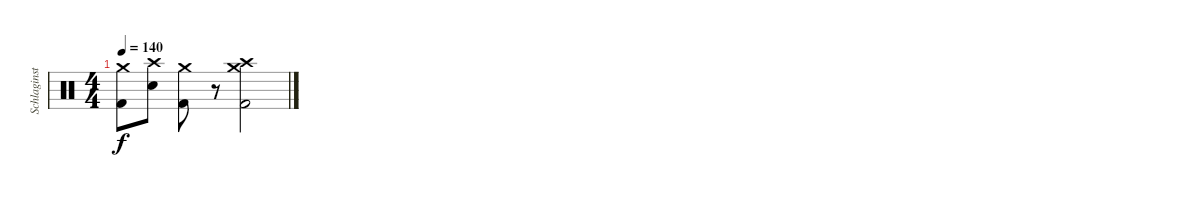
\track ("Schlaginstrumente - Auswahl" "Schlaginst") {instrument percussion}
\staff {score}
\articulation defaults
\ts (4 4)
\tempo 140
\clef neutral
\ks c
("Crash medium (hit)" "Kick (hit) 2").8{dy f} ("Crash high (hit)" "Electric Snare (hit)").8 ("Crash medium (hit)" "Kick (hit) 2").8 r.8 ("Crash medium (hit)" "Crash high (hit)" "Kick (hit) 2").2
